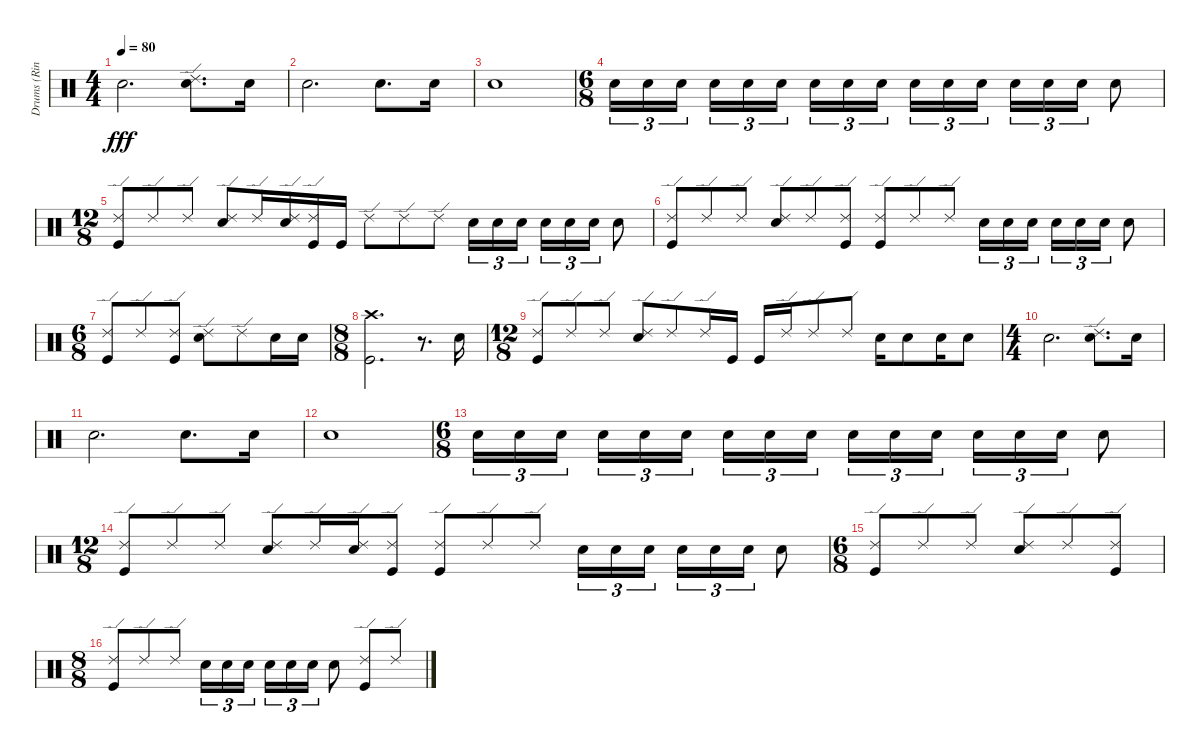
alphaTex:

\track ("Drums (Ringo Starr)" "Drums (Rin") {instrument percussion}
\staff {score}
\articulation defaults
\ts (4 4)
\tempo 80
\clef neutral
\ks c "Electric Snare (hit)".2{d dy fff}
("Ride (edge) 2" "Electric Snare (hit)").8{d} "Electric Snare (hit)".16 |
"Electric Snare (hit)".2{d} "Electric Snare (hit)".8{d} "Electric Snare (hit)".16 |
"Electric Snare (hit)".1 |
\ts (6 8)
"Electric Snare (hit)".16{tu (3 2)} "Electric Snare (hit)".16{tu (3 2)} "Electric Snare (hit)".16{tu (3 2) beam splitsecondary} "Electric Snare (hit)".16{tu (3 2)} "Electric Snare (hit)".16{tu (3 2)} "Electric Snare (hit)".16{tu (3 2) beam splitsecondary} "Electric Snare (hit)".16{tu (3 2)} "Electric Snare (hit)".16{tu (3 2)} "Electric Snare (hit)".16{tu (3 2)} "Electric Snare (hit)".16{tu (3 2)} "Electric Snare (hit)".16{tu (3 2)} "Electric Snare (hit)".16{tu (3 2) beam splitsecondary} "Electric Snare (hit)".16{tu (3 2)} "Electric Snare (hit)".16{tu (3 2)} "Electric Snare (hit)".16{tu (3 2)} "Electric Snare (hit)".8 |
\ts (12 8)
("Ride (edge) 2" "Kick (hit)").8 "Ride (edge) 2".8 "Ride (edge) 2".8 ("Ride (edge) 2" "Electric Snare (hit)").8 "Ride (edge) 2".16 ("Ride (edge) 2" "Electric Snare (hit)").16 ("Ride (edge) 2" "Kick (hit)").16 "Kick (hit)".16 "Ride (edge) 2".8 "Ride (edge) 2".8 "Ride (edge) 2".8 "Electric Snare (hit)".16{tu (3 2)} "Electric Snare (hit)".16{tu (3 2)} "Electric Snare (hit)".16{tu (3 2) beam splitsecondary} "Electric Snare (hit)".16{tu (3 2)} "Electric Snare (hit)".16{tu (3 2)} "Electric Snare (hit)".16{tu (3 2)} "Electric Snare (hit)".8 |
("Ride (edge) 2" "Kick (hit)").8 "Ride (edge) 2".8 "Ride (edge) 2".8 ("Ride (edge) 2" "Electric Snare (hit)").8 "Ride (edge) 2".8 ("Ride (edge) 2" "Kick (hit)").8 ("Ride (edge) 2" "Kick (hit)").8 "Ride (edge) 2".8 "Ride (edge) 2".8 "Electric Snare (hit)".16{tu (3 2)} "Electric Snare (hit)".16{tu (3 2)} "Electric Snare (hit)".16{tu (3 2) beam splitsecondary} "Electric Snare (hit)".16{tu (3 2)} "Electric Snare (hit)".16{tu (3 2)} "Electric Snare (hit)".16{tu (3 2)} "Electric Snare (hit)".8 |
\ts (6 8)
("Ride (edge) 2" "Kick (hit)").8 "Ride (edge) 2".8 ("Ride (edge) 2" "Kick (hit)").8 ("Ride (edge) 2" "Electric Snare (hit)").8 "Ride (edge) 2".8 "Electric Snare (hit)".16 "Electric Snare (hit)".16 |
\ts (8 8)
("Crash high (hit)" "Kick (hit)").2{d} r.8{d} "Electric Snare (hit)".16 |
\ts (12 8)
("Ride (edge) 2" "Kick (hit)").8 "Ride (edge) 2".8 "Ride (edge) 2".8 ("Ride (edge) 2" "Electric Snare (hit)").8 "Ride (edge) 2".8 "Ride (edge) 2".16 "Kick (hit)".16 "Kick (hit)".16 "Ride (edge) 2".16 "Ride (edge) 2".8 "Ride (edge) 2".8 "Electric Snare (hit)".16 "Electric Snare (hit)".8 "Electric Snare (hit)".16 "Electric Snare (hit)".8 |
\ts (4 4)
"Electric Snare (hit)".2{d} ("Electric Snare (hit)" "Ride (edge) 2").8{d} "Electric Snare (hit)".16 |
"Electric Snare (hit)".2{d} "Electric Snare (hit)".8{d} "Electric Snare (hit)".16 |
"Electric Snare (hit)".1 |
\ts (6 8)
"Electric Snare (hit)".16{tu (3 2)} "Electric Snare (hit)".16{tu (3 2)} "Electric Snare (hit)".16{tu (3 2) beam splitsecondary} "Electric Snare (hit)".16{tu (3 2)} "Electric Snare (hit)".16{tu (3 2)} "Electric Snare (hit)".16{tu (3 2) beam splitsecondary} "Electric Snare (hit)".16{tu (3 2)} "Electric Snare (hit)".16{tu (3 2)} "Electric Snare (hit)".16{tu (3 2)} "Electric Snare (hit)".16{tu (3 2)} "Electric Snare (hit)".16{tu (3 2)} "Electric Snare (hit)".16{tu (3 2) beam splitsecondary} "Electric Snare (hit)".16{tu (3 2)} "Electric Snare (hit)".16{tu (3 2)} "Electric Snare (hit)".16{tu (3 2)} "Electric Snare (hit)".8 |
\ts (12 8)
("Ride (edge) 2" "Kick (hit)").8 "Ride (edge) 2".8 "Ride (edge) 2".8 ("Ride (edge) 2" "Electric Snare (hit)").8 "Ride (edge) 2".16 ("Ride (edge) 2" "Electric Snare (hit)").16 ("Ride (edge) 2" "Kick (hit)").8 ("Ride (edge) 2" "Kick (hit)").8 "Ride (edge) 2".8 "Ride (edge) 2".8 "Electric Snare (hit)".16{tu (3 2)} "Electric Snare (hit)".16{tu (3 2)} "Electric Snare (hit)".16{tu (3 2) beam splitsecondary} "Electric Snare (hit)".16{tu (3 2)} "Electric Snare (hit)".16{tu (3 2)} "Electric Snare (hit)".16{tu (3 2)} "Electric Snare (hit)".8 |
\ts (6 8)
("Ride (edge) 2" "Kick (hit)").8 "Ride (edge) 2".8 "Ride (edge) 2".8 ("Ride (edge) 2" "Electric Snare (hit)").8 "Ride (edge) 2".8 ("Ride (edge) 2" "Kick (hit)").8 |
\ts (8 8)
("Ride (edge) 2" "Kick (hit)").8 "Ride (edge) 2".8 "Ride (edge) 2".8 "Electric Snare (hit)".16{tu (3 2)} "Electric Snare (hit)".16{tu (3 2)} "Electric Snare (hit)".16{tu (3 2)} "Electric Snare (hit)".16{tu (3 2)} "Electric Snare (hit)".16{tu (3 2)} "Electric Snare (hit)".16{tu (3 2)} "Electric Snare (hit)".8 ("Ride (edge) 2" "Kick (hit)").8 "Ride (edge) 2".8
